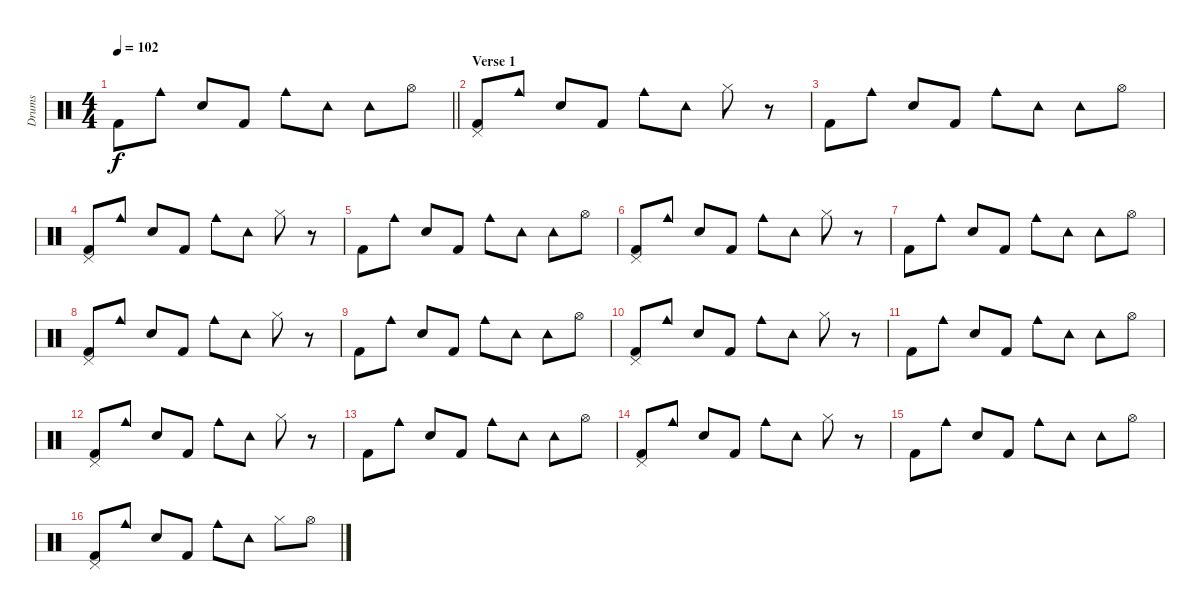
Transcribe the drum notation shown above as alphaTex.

\track ("Drums" "Drums") {instrument percussion}
\staff {score}
\articulation defaults
\ts (4 4)
\tempo 102
\clef neutral
\barLineRight lightlight
\ks c "Kick (hit) 2".8{dy f} "Cowbell medium (hit)".8 "Electric Snare (hit)".8 "Kick (hit) 2".8 "Cowbell medium (hit)".8 "Tambourine (hit)".8 "Tambourine (hit)".8 "Hi-Hat (open)".8
|
\section ("" "Verse 1")
("Pedal Hi-Hat (hit)" "Kick (hit) 2").8 "Cowbell medium (hit)".8 "Electric Snare (hit)".8 "Kick (hit) 2".8 "Cowbell medium (hit)".8 "Tambourine (hit)".8 "Hi-Hat (closed)".8 r.8 |
"Kick (hit) 2".8 "Cowbell medium (hit)".8 "Electric Snare (hit)".8 "Kick (hit) 2".8 "Cowbell medium (hit)".8 "Tambourine (hit)".8 "Tambourine (hit)".8 "Hi-Hat (open)".8 |
("Pedal Hi-Hat (hit)" "Kick (hit) 2").8 "Cowbell medium (hit)".8 "Electric Snare (hit)".8 "Kick (hit) 2".8 "Cowbell medium (hit)".8 "Tambourine (hit)".8 "Hi-Hat (closed)".8 r.8 |
"Kick (hit) 2".8 "Cowbell medium (hit)".8 "Electric Snare (hit)".8 "Kick (hit) 2".8 "Cowbell medium (hit)".8 "Tambourine (hit)".8 "Tambourine (hit)".8 "Hi-Hat (open)".8 |
("Pedal Hi-Hat (hit)" "Kick (hit) 2").8 "Cowbell medium (hit)".8 "Electric Snare (hit)".8 "Kick (hit) 2".8 "Cowbell medium (hit)".8 "Tambourine (hit)".8 "Hi-Hat (closed)".8 r.8 |
"Kick (hit) 2".8 "Cowbell medium (hit)".8 "Electric Snare (hit)".8 "Kick (hit) 2".8 "Cowbell medium (hit)".8 "Tambourine (hit)".8 "Tambourine (hit)".8 "Hi-Hat (open)".8 |
("Pedal Hi-Hat (hit)" "Kick (hit) 2").8 "Cowbell medium (hit)".8 "Electric Snare (hit)".8 "Kick (hit) 2".8 "Cowbell medium (hit)".8 "Tambourine (hit)".8 "Hi-Hat (closed)".8 r.8 |
"Kick (hit) 2".8 "Cowbell medium (hit)".8 "Electric Snare (hit)".8 "Kick (hit) 2".8 "Cowbell medium (hit)".8 "Tambourine (hit)".8 "Tambourine (hit)".8 "Hi-Hat (open)".8 |
("Pedal Hi-Hat (hit)" "Kick (hit) 2").8 "Cowbell medium (hit)".8 "Electric Snare (hit)".8 "Kick (hit) 2".8 "Cowbell medium (hit)".8 "Tambourine (hit)".8 "Hi-Hat (closed)".8 r.8 |
"Kick (hit) 2".8 "Cowbell medium (hit)".8 "Electric Snare (hit)".8 "Kick (hit) 2".8 "Cowbell medium (hit)".8 "Tambourine (hit)".8 "Tambourine (hit)".8 "Hi-Hat (open)".8 |
("Pedal Hi-Hat (hit)" "Kick (hit) 2").8 "Cowbell medium (hit)".8 "Electric Snare (hit)".8 "Kick (hit) 2".8 "Cowbell medium (hit)".8 "Tambourine (hit)".8 "Hi-Hat (closed)".8 r.8 |
"Kick (hit) 2".8 "Cowbell medium (hit)".8 "Electric Snare (hit)".8 "Kick (hit) 2".8 "Cowbell medium (hit)".8 "Tambourine (hit)".8 "Tambourine (hit)".8 "Hi-Hat (open)".8 |
("Pedal Hi-Hat (hit)" "Kick (hit) 2").8 "Cowbell medium (hit)".8 "Electric Snare (hit)".8 "Kick (hit) 2".8 "Cowbell medium (hit)".8 "Tambourine (hit)".8 "Hi-Hat (closed)".8 r.8 |
"Kick (hit) 2".8 "Cowbell medium (hit)".8 "Electric Snare (hit)".8 "Kick (hit) 2".8 "Cowbell medium (hit)".8 "Tambourine (hit)".8 "Tambourine (hit)".8 "Hi-Hat (open)".8 |
("Pedal Hi-Hat (hit)" "Kick (hit) 2").8 "Cowbell medium (hit)".8 "Electric Snare (hit)".8 "Kick (hit) 2".8 "Cowbell medium (hit)".8 "Tambourine (hit)".8 "Hi-Hat (closed)".8 "Hi-Hat (open)".8
